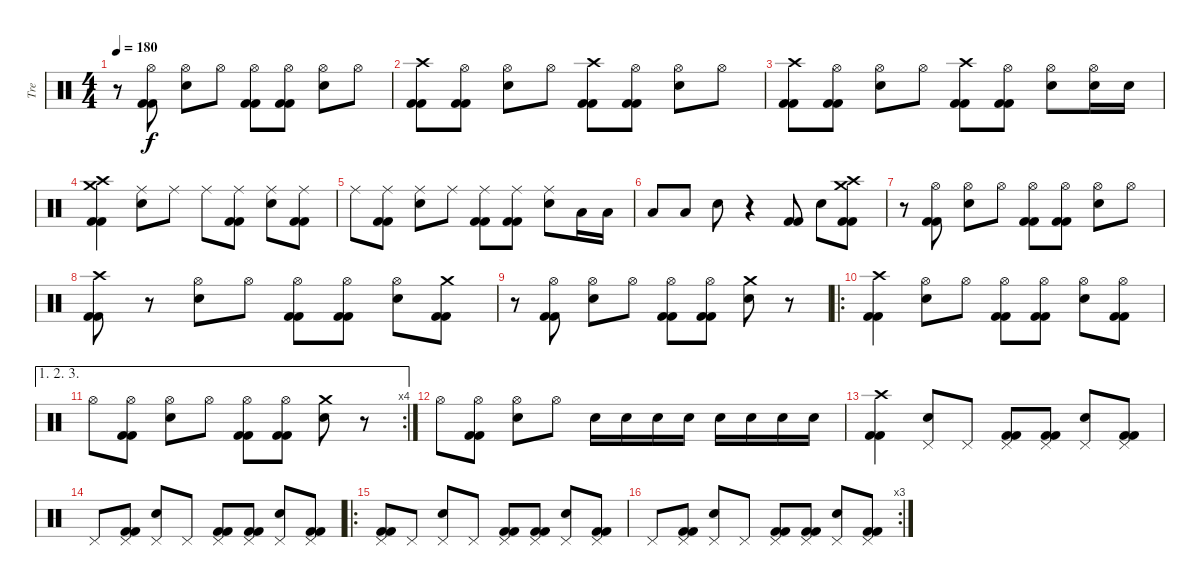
\track ("Tre" "Tre") {instrument percussion}
\staff {score}
\articulation defaults
\ts (4 4)
\tempo 180
\clef neutral
\ks c
r.8{dy f} ("Hi-Hat (open)" "Kick (hit) 2" "Kick (hit) 2").8 ("Hi-Hat (open)" "Snare (hit) 2").8 "Hi-Hat (open)".8 ("Hi-Hat (open)" "Kick (hit) 2" "Kick (hit) 2").8 ("Hi-Hat (open)" "Kick (hit) 2" "Kick (hit) 2").8 ("Hi-Hat (open)" "Snare (hit) 2").8 "Hi-Hat (open)".8 |
("Crash high (hit)" "Kick (hit) 2" "Kick (hit) 2").8 ("Hi-Hat (open)" "Kick (hit) 2" "Kick (hit) 2").8 ("Hi-Hat (open)" "Snare (hit) 2").8 "Hi-Hat (open)".8 ("Crash high (hit)" "Kick (hit) 2" "Kick (hit) 2").8 ("Hi-Hat (open)" "Kick (hit) 2" "Kick (hit) 2").8 ("Hi-Hat (open)" "Snare (hit) 2").8 "Hi-Hat (open)".8 |
("Crash high (hit)" "Kick (hit) 2" "Kick (hit) 2").8 ("Hi-Hat (open)" "Kick (hit) 2" "Kick (hit) 2").8 ("Hi-Hat (open)" "Snare (hit) 2").8 "Hi-Hat (open)".8 ("Crash high (hit)" "Kick (hit) 2" "Kick (hit) 2").8 ("Hi-Hat (open)" "Kick (hit) 2" "Kick (hit) 2").8 ("Hi-Hat (open)" "Snare (hit) 2").8 ("Hi-Hat (open)" "Snare (hit) 2").16 "Snare (hit) 2".16 |
("Crash high (hit)" "Crash medium (hit)" "Kick (hit) 2" "Kick (hit) 2").4 ("Ride (middle)" "Snare (hit) 2").8 "Ride (middle)".8 "Ride (middle)".8 ("Ride (middle)" "Kick (hit) 2" "Kick (hit) 2").8 ("Ride (middle)" "Snare (hit) 2").8 ("Ride (middle)" "Kick (hit) 2" "Kick (hit) 2").8 |
"Ride (middle)".8 ("Ride (middle)" "Kick (hit) 2" "Kick (hit) 2").8 ("Ride (middle)" "Snare (hit) 2").8 "Ride (middle)".8 ("Ride (middle)" "Kick (hit) 2" "Kick (hit) 2").8 ("Ride (middle)" "Kick (hit) 2" "Kick (hit) 2").8 ("Ride (middle)" "Snare (hit) 2").8 "Low Tom (hit)".16 "Low Tom (hit)".16 |
"Low Tom (hit)".8 "Low Tom (hit)".8 "Snare (hit) 2".8 r.4 ("Kick (hit) 2" "Kick (hit) 2").8 "Snare (hit) 2".8 ("Crash high (hit)" "Crash medium (hit)" "Kick (hit) 2" "Kick (hit) 2").8 |
r.8 ("Hi-Hat (open)" "Kick (hit) 2" "Kick (hit) 2").8 ("Hi-Hat (open)" "Snare (hit) 2").8 "Hi-Hat (open)".8 ("Hi-Hat (open)" "Kick (hit) 2" "Kick (hit) 2").8 ("Hi-Hat (open)" "Kick (hit) 2" "Kick (hit) 2").8 ("Hi-Hat (open)" "Snare (hit) 2").8 "Hi-Hat (open)".8 |
("Crash high (hit)" "Kick (hit) 2" "Kick (hit) 2").8 r.8 ("Hi-Hat (open)" "Snare (hit) 2").8 "Hi-Hat (open)".8 ("Hi-Hat (open)" "Kick (hit) 2" "Kick (hit) 2").8 ("Hi-Hat (open)" "Kick (hit) 2" "Kick (hit) 2").8 ("Hi-Hat (open)" "Snare (hit) 2").8 ("Crash medium (hit)" "Kick (hit) 2" "Kick (hit) 2").8 |
r.8 ("Hi-Hat (open)" "Kick (hit) 2" "Kick (hit) 2").8 ("Hi-Hat (open)" "Snare (hit) 2").8 "Hi-Hat (open)".8 ("Hi-Hat (open)" "Kick (hit) 2" "Kick (hit) 2").8 ("Hi-Hat (open)" "Kick (hit) 2" "Kick (hit) 2").8 ("Crash medium (hit)" "Snare (hit) 2").8 r.8 |
\ro
("Crash high (hit)" "Kick (hit) 2" "Kick (hit) 2").4 ("Hi-Hat (open)" "Snare (hit) 2").8 "Hi-Hat (open)".8 ("Hi-Hat (open)" "Kick (hit) 2" "Kick (hit) 2").8 ("Hi-Hat (open)" "Kick (hit) 2" "Kick (hit) 2").8 ("Hi-Hat (open)" "Snare (hit) 2").8 ("Hi-Hat (open)" "Kick (hit) 2" "Kick (hit) 2").8 |
\ae (1 2 3)
\rc 4 "Hi-Hat (open)".8
("Hi-Hat (open)" "Kick (hit) 2" "Kick (hit) 2").8 ("Hi-Hat (open)" "Snare (hit) 2").8 "Hi-Hat (open)".8 ("Hi-Hat (open)" "Kick (hit) 2" "Kick (hit) 2").8 ("Hi-Hat (open)" "Kick (hit) 2" "Kick (hit) 2").8 ("Crash medium (hit)" "Snare (hit) 2").8 r.8 |
"Hi-Hat (open)".8 ("Hi-Hat (open)" "Kick (hit) 2" "Kick (hit) 2").8 ("Hi-Hat (open)" "Snare (hit) 2").8 "Hi-Hat (open)".8 "Snare (hit) 2".16 "Snare (hit) 2".16 "Snare (hit) 2".16 "Snare (hit) 2".16 "Snare (hit) 2".16 "Snare (hit) 2".16 "Snare (hit) 2".16 "Snare (hit) 2".16 |
("Crash high (hit)" "Kick (hit) 2" "Kick (hit) 2").4 ("Pedal Hi-Hat (hit)" "Snare (hit) 2").8 "Pedal Hi-Hat (hit)".8 ("Pedal Hi-Hat (hit)" "Kick (hit) 2" "Kick (hit) 2").8 ("Pedal Hi-Hat (hit)" "Kick (hit) 2" "Kick (hit) 2").8 ("Pedal Hi-Hat (hit)" "Snare (hit) 2").8 ("Pedal Hi-Hat (hit)" "Kick (hit) 2" "Kick (hit) 2").8 |
"Pedal Hi-Hat (hit)".8 ("Pedal Hi-Hat (hit)" "Kick (hit) 2" "Kick (hit) 2").8 ("Pedal Hi-Hat (hit)" "Snare (hit) 2").8 "Pedal Hi-Hat (hit)".8 ("Pedal Hi-Hat (hit)" "Kick (hit) 2" "Kick (hit) 2").8 ("Pedal Hi-Hat (hit)" "Kick (hit) 2" "Kick (hit) 2").8 ("Pedal Hi-Hat (hit)" "Snare (hit) 2").8 ("Pedal Hi-Hat (hit)" "Kick (hit) 2" "Kick (hit) 2").8 |
\ro
("Pedal Hi-Hat (hit)" "Kick (hit) 2" "Kick (hit) 2").8 "Pedal Hi-Hat (hit)".8 ("Pedal Hi-Hat (hit)" "Snare (hit) 2").8 "Pedal Hi-Hat (hit)".8 ("Pedal Hi-Hat (hit)" "Kick (hit) 2" "Kick (hit) 2").8 ("Pedal Hi-Hat (hit)" "Kick (hit) 2" "Kick (hit) 2").8 ("Pedal Hi-Hat (hit)" "Snare (hit) 2").8 ("Pedal Hi-Hat (hit)" "Kick (hit) 2" "Kick (hit) 2").8 |
\rc 3 "Pedal Hi-Hat (hit)".8
("Pedal Hi-Hat (hit)" "Kick (hit) 2" "Kick (hit) 2").8 ("Pedal Hi-Hat (hit)" "Snare (hit) 2").8 "Pedal Hi-Hat (hit)".8 ("Pedal Hi-Hat (hit)" "Kick (hit) 2" "Kick (hit) 2").8 ("Pedal Hi-Hat (hit)" "Kick (hit) 2" "Kick (hit) 2").8 ("Pedal Hi-Hat (hit)" "Snare (hit) 2").8 ("Pedal Hi-Hat (hit)" "Kick (hit) 2" "Kick (hit) 2").8
